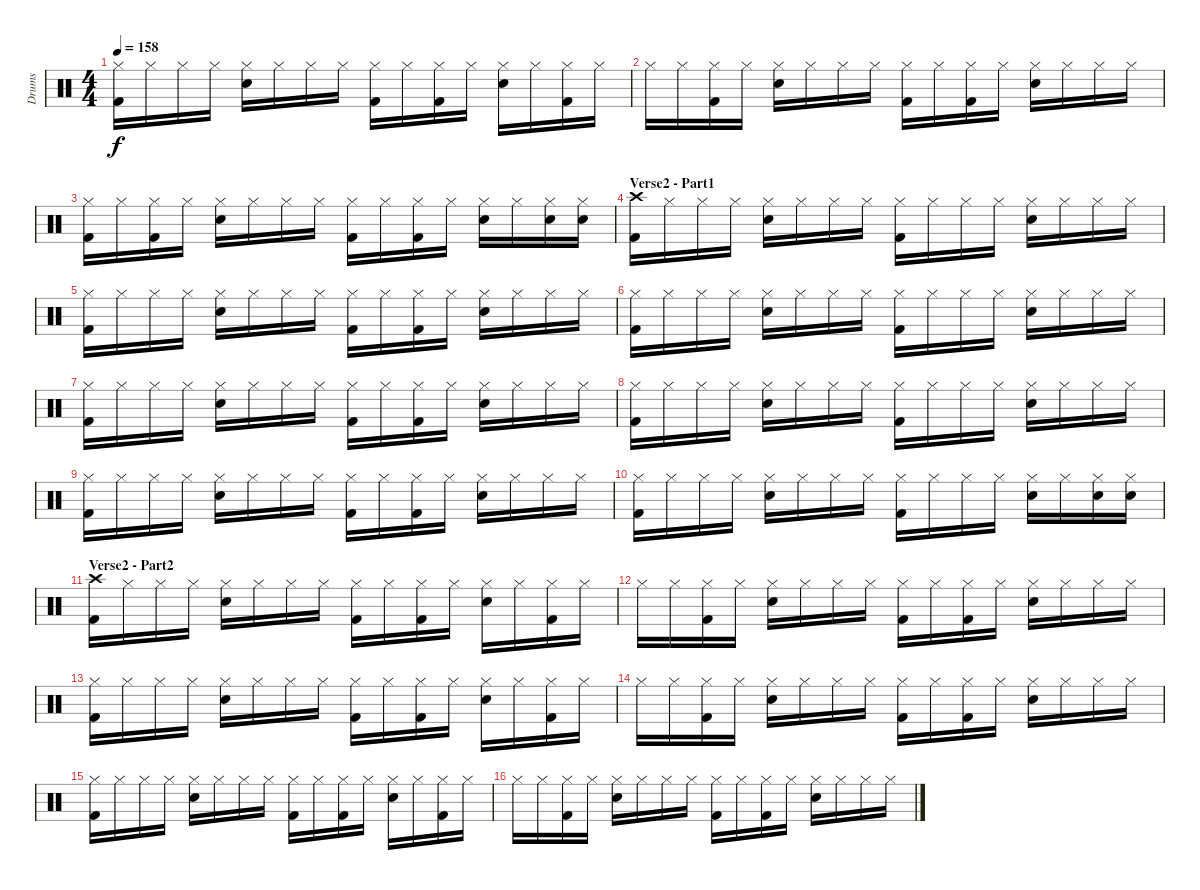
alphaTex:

\track ("Drums" "Drums") {instrument percussion}
\staff {score}
\articulation defaults
\ts (4 4)
\tempo 158
\clef neutral
\ks c
("Hi-Hat (closed)" "Kick (hit) 2").16{dy f} "Hi-Hat (closed)".16 "Hi-Hat (closed)".16 "Hi-Hat (closed)".16 ("Hi-Hat (closed)" "Snare (hit) 2").16 "Hi-Hat (closed)".16 "Hi-Hat (closed)".16 "Hi-Hat (closed)".16 ("Hi-Hat (closed)" "Kick (hit) 2").16 "Hi-Hat (closed)".16 ("Hi-Hat (closed)" "Kick (hit) 2").16 "Hi-Hat (closed)".16 ("Hi-Hat (closed)" "Snare (hit) 2").16 "Hi-Hat (closed)".16 ("Hi-Hat (closed)" "Kick (hit) 2").16 "Hi-Hat (closed)".16 |
"Hi-Hat (closed)".16 "Hi-Hat (closed)".16 ("Hi-Hat (closed)" "Kick (hit) 2").16 "Hi-Hat (closed)".16 ("Hi-Hat (closed)" "Snare (hit) 2").16 "Hi-Hat (closed)".16 "Hi-Hat (closed)".16 "Hi-Hat (closed)".16 ("Hi-Hat (closed)" "Kick (hit) 2").16 "Hi-Hat (closed)".16 ("Hi-Hat (closed)" "Kick (hit) 2").16 "Hi-Hat (closed)".16 ("Hi-Hat (closed)" "Snare (hit) 2").16 "Hi-Hat (closed)".16 "Hi-Hat (closed)".16 "Hi-Hat (closed)".16 |
("Hi-Hat (closed)" "Kick (hit) 2").16 "Hi-Hat (closed)".16 ("Hi-Hat (closed)" "Kick (hit) 2").16 "Hi-Hat (closed)".16 ("Hi-Hat (closed)" "Snare (hit) 2").16 "Hi-Hat (closed)".16 "Hi-Hat (closed)".16 "Hi-Hat (closed)".16 ("Hi-Hat (closed)" "Kick (hit) 2").16 "Hi-Hat (closed)".16 ("Hi-Hat (closed)" "Kick (hit) 2").16 "Hi-Hat (closed)".16 ("Hi-Hat (closed)" "Snare (hit) 2").16 "Hi-Hat (closed)".16 ("Hi-Hat (closed)" "Snare (hit) 2").16 ("Hi-Hat (closed)" "Snare (hit) 2").16 |
\section ("" "Verse2 - Part1")
("Crash high (hit)" "Kick (hit) 2").16 "Hi-Hat (closed)".16 "Hi-Hat (closed)".16 "Hi-Hat (closed)".16 ("Hi-Hat (closed)" "Snare (hit) 2").16 "Hi-Hat (closed)".16 "Hi-Hat (closed)".16 "Hi-Hat (closed)".16 ("Hi-Hat (closed)" "Kick (hit) 2").16 "Hi-Hat (closed)".16 "Hi-Hat (closed)".16 "Hi-Hat (closed)".16 ("Hi-Hat (closed)" "Snare (hit) 2").16 "Hi-Hat (closed)".16 "Hi-Hat (closed)".16 "Hi-Hat (closed)".16 |
("Hi-Hat (closed)" "Kick (hit) 2").16 "Hi-Hat (closed)".16 "Hi-Hat (closed)".16 "Hi-Hat (closed)".16 ("Hi-Hat (closed)" "Snare (hit) 2").16 "Hi-Hat (closed)".16 "Hi-Hat (closed)".16 "Hi-Hat (closed)".16 ("Hi-Hat (closed)" "Kick (hit) 2").16 "Hi-Hat (closed)".16 ("Hi-Hat (closed)" "Kick (hit) 2").16 "Hi-Hat (closed)".16 ("Hi-Hat (closed)" "Snare (hit) 2").16 "Hi-Hat (closed)".16 "Hi-Hat (closed)".16 "Hi-Hat (closed)".16 |
("Hi-Hat (closed)" "Kick (hit) 2").16 "Hi-Hat (closed)".16 "Hi-Hat (closed)".16 "Hi-Hat (closed)".16 ("Hi-Hat (closed)" "Snare (hit) 2").16 "Hi-Hat (closed)".16 "Hi-Hat (closed)".16 "Hi-Hat (closed)".16 ("Hi-Hat (closed)" "Kick (hit) 2").16 "Hi-Hat (closed)".16 "Hi-Hat (closed)".16 "Hi-Hat (closed)".16 ("Hi-Hat (closed)" "Snare (hit) 2").16 "Hi-Hat (closed)".16 "Hi-Hat (closed)".16 "Hi-Hat (closed)".16 |
("Hi-Hat (closed)" "Kick (hit) 2").16 "Hi-Hat (closed)".16 "Hi-Hat (closed)".16 "Hi-Hat (closed)".16 ("Hi-Hat (closed)" "Snare (hit) 2").16 "Hi-Hat (closed)".16 "Hi-Hat (closed)".16 "Hi-Hat (closed)".16 ("Hi-Hat (closed)" "Kick (hit) 2").16 "Hi-Hat (closed)".16 ("Hi-Hat (closed)" "Kick (hit) 2").16 "Hi-Hat (closed)".16 ("Hi-Hat (closed)" "Snare (hit) 2").16 "Hi-Hat (closed)".16 "Hi-Hat (closed)".16 "Hi-Hat (closed)".16 |
("Hi-Hat (closed)" "Kick (hit) 2").16 "Hi-Hat (closed)".16 "Hi-Hat (closed)".16 "Hi-Hat (closed)".16 ("Hi-Hat (closed)" "Snare (hit) 2").16 "Hi-Hat (closed)".16 "Hi-Hat (closed)".16 "Hi-Hat (closed)".16 ("Hi-Hat (closed)" "Kick (hit) 2").16 "Hi-Hat (closed)".16 "Hi-Hat (closed)".16 "Hi-Hat (closed)".16 ("Hi-Hat (closed)" "Snare (hit) 2").16 "Hi-Hat (closed)".16 "Hi-Hat (closed)".16 "Hi-Hat (closed)".16 |
("Hi-Hat (closed)" "Kick (hit) 2").16 "Hi-Hat (closed)".16 "Hi-Hat (closed)".16 "Hi-Hat (closed)".16 ("Hi-Hat (closed)" "Snare (hit) 2").16 "Hi-Hat (closed)".16 "Hi-Hat (closed)".16 "Hi-Hat (closed)".16 ("Hi-Hat (closed)" "Kick (hit) 2").16 "Hi-Hat (closed)".16 ("Hi-Hat (closed)" "Kick (hit) 2").16 "Hi-Hat (closed)".16 ("Hi-Hat (closed)" "Snare (hit) 2").16 "Hi-Hat (closed)".16 "Hi-Hat (closed)".16 "Hi-Hat (closed)".16 |
("Hi-Hat (closed)" "Kick (hit) 2").16 "Hi-Hat (closed)".16 "Hi-Hat (closed)".16 "Hi-Hat (closed)".16 ("Hi-Hat (closed)" "Snare (hit) 2").16 "Hi-Hat (closed)".16 "Hi-Hat (closed)".16 "Hi-Hat (closed)".16 ("Hi-Hat (closed)" "Kick (hit) 2").16 "Hi-Hat (closed)".16 "Hi-Hat (closed)".16 "Hi-Hat (closed)".16 ("Hi-Hat (closed)" "Snare (hit) 2").16 "Hi-Hat (closed)".16 ("Hi-Hat (closed)" "Snare (hit) 2").16 ("Hi-Hat (closed)" "Snare (hit) 2").16 |
\section ("" "Verse2 - Part2")
("Crash high (hit)" "Kick (hit) 2").16 "Hi-Hat (closed)".16 "Hi-Hat (closed)".16 "Hi-Hat (closed)".16 ("Hi-Hat (closed)" "Snare (hit) 2").16 "Hi-Hat (closed)".16 "Hi-Hat (closed)".16 "Hi-Hat (closed)".16 ("Hi-Hat (closed)" "Kick (hit) 2").16 "Hi-Hat (closed)".16 ("Hi-Hat (closed)" "Kick (hit) 2").16 "Hi-Hat (closed)".16 ("Hi-Hat (closed)" "Snare (hit) 2").16 "Hi-Hat (closed)".16 ("Hi-Hat (closed)" "Kick (hit) 2").16 "Hi-Hat (closed)".16 |
"Hi-Hat (closed)".16 "Hi-Hat (closed)".16 ("Hi-Hat (closed)" "Kick (hit) 2").16 "Hi-Hat (closed)".16 ("Hi-Hat (closed)" "Snare (hit) 2").16 "Hi-Hat (closed)".16 "Hi-Hat (closed)".16 "Hi-Hat (closed)".16 ("Hi-Hat (closed)" "Kick (hit) 2").16 "Hi-Hat (closed)".16 ("Hi-Hat (closed)" "Kick (hit) 2").16 "Hi-Hat (closed)".16 ("Hi-Hat (closed)" "Snare (hit) 2").16 "Hi-Hat (closed)".16 "Hi-Hat (closed)".16 "Hi-Hat (closed)".16 |
("Hi-Hat (closed)" "Kick (hit) 2").16 "Hi-Hat (closed)".16 "Hi-Hat (closed)".16 "Hi-Hat (closed)".16 ("Hi-Hat (closed)" "Snare (hit) 2").16 "Hi-Hat (closed)".16 "Hi-Hat (closed)".16 "Hi-Hat (closed)".16 ("Hi-Hat (closed)" "Kick (hit) 2").16 "Hi-Hat (closed)".16 ("Hi-Hat (closed)" "Kick (hit) 2").16 "Hi-Hat (closed)".16 ("Hi-Hat (closed)" "Snare (hit) 2").16 "Hi-Hat (closed)".16 ("Hi-Hat (closed)" "Kick (hit) 2").16 "Hi-Hat (closed)".16 |
"Hi-Hat (closed)".16 "Hi-Hat (closed)".16 ("Hi-Hat (closed)" "Kick (hit) 2").16 "Hi-Hat (closed)".16 ("Hi-Hat (closed)" "Snare (hit) 2").16 "Hi-Hat (closed)".16 "Hi-Hat (closed)".16 "Hi-Hat (closed)".16 ("Hi-Hat (closed)" "Kick (hit) 2").16 "Hi-Hat (closed)".16 ("Hi-Hat (closed)" "Kick (hit) 2").16 "Hi-Hat (closed)".16 ("Hi-Hat (closed)" "Snare (hit) 2").16 "Hi-Hat (closed)".16 "Hi-Hat (closed)".16 "Hi-Hat (closed)".16 |
("Hi-Hat (closed)" "Kick (hit) 2").16 "Hi-Hat (closed)".16 "Hi-Hat (closed)".16 "Hi-Hat (closed)".16 ("Hi-Hat (closed)" "Snare (hit) 2").16 "Hi-Hat (closed)".16 "Hi-Hat (closed)".16 "Hi-Hat (closed)".16 ("Hi-Hat (closed)" "Kick (hit) 2").16 "Hi-Hat (closed)".16 ("Hi-Hat (closed)" "Kick (hit) 2").16 "Hi-Hat (closed)".16 ("Hi-Hat (closed)" "Snare (hit) 2").16 "Hi-Hat (closed)".16 ("Hi-Hat (closed)" "Kick (hit) 2").16 "Hi-Hat (closed)".16 |
"Hi-Hat (closed)".16 "Hi-Hat (closed)".16 ("Hi-Hat (closed)" "Kick (hit) 2").16 "Hi-Hat (closed)".16 ("Hi-Hat (closed)" "Snare (hit) 2").16 "Hi-Hat (closed)".16 "Hi-Hat (closed)".16 "Hi-Hat (closed)".16 ("Hi-Hat (closed)" "Kick (hit) 2").16 "Hi-Hat (closed)".16 ("Hi-Hat (closed)" "Kick (hit) 2").16 "Hi-Hat (closed)".16 ("Hi-Hat (closed)" "Snare (hit) 2").16 "Hi-Hat (closed)".16 "Hi-Hat (closed)".16 "Hi-Hat (closed)".16
